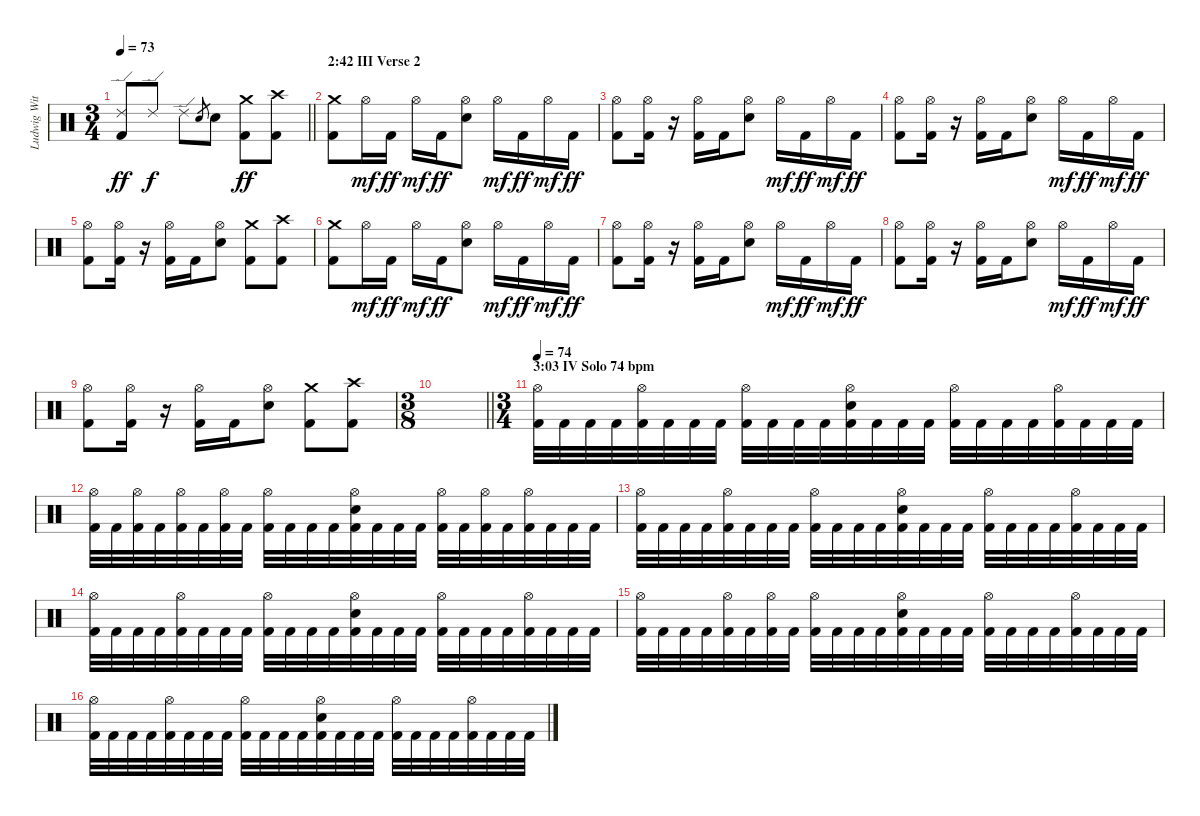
\track ("Ludwig Witt (Drums)" "Ludwig Wit") {instrument percussion}
\staff
\articulation defaults
\ts (3 4)
\tempo 73
\clef neutral
\barLineRight lightlight
\ks c
("Ride (edge) 2" "Kick (hit) 2").8{dy ff} "Ride (edge) 2".8{dy f} "Ride (edge) 2".8 "Electric Snare (hit)".8{gr} "Electric Snare (hit)".8 ("Crash medium (hit)" "Kick (hit) 2").8{dy ff} ("Crash high (hit)" "Kick (hit) 2").8 |
\section ("" "2:42 III Verse 2")
("Crash medium (hit)" "Kick (hit) 2").8 "Hi-Hat (open)".16{dy mf} "Kick (hit) 2".16{dy ff} "Hi-Hat (open)".16{dy mf} "Kick (hit) 2".16{dy ff} ("Hi-Hat (open)" "Electric Snare (hit)").8 "Hi-Hat (open)".16{dy mf} "Kick (hit) 2".16{dy ff} "Hi-Hat (open)".16{dy mf} "Kick (hit) 2".16{dy ff} |
("Hi-Hat (open)" "Kick (hit) 2").8 ("Hi-Hat (open)" "Kick (hit) 2").16 r.16 ("Hi-Hat (open)" "Kick (hit) 2").16 "Kick (hit) 2".16 ("Hi-Hat (open)" "Electric Snare (hit)").8 "Hi-Hat (open)".16{dy mf} "Kick (hit) 2".16{dy ff} "Hi-Hat (open)".16{dy mf} "Kick (hit) 2".16{dy ff} |
("Hi-Hat (open)" "Kick (hit) 2").8 ("Hi-Hat (open)" "Kick (hit) 2").16 r.16 ("Hi-Hat (open)" "Kick (hit) 2").16 "Kick (hit) 2".16 ("Hi-Hat (open)" "Electric Snare (hit)").8 "Hi-Hat (open)".16{dy mf} "Kick (hit) 2".16{dy ff} "Hi-Hat (open)".16{dy mf} "Kick (hit) 2".16{dy ff} |
("Hi-Hat (open)" "Kick (hit) 2").8 ("Hi-Hat (open)" "Kick (hit) 2").16 r.16 ("Hi-Hat (open)" "Kick (hit) 2").16 "Kick (hit) 2".16 ("Hi-Hat (open)" "Electric Snare (hit)").8 ("Crash medium (hit)" "Kick (hit) 2").8 ("Crash high (hit)" "Kick (hit) 2").8 |
("Crash medium (hit)" "Kick (hit) 2").8 "Hi-Hat (open)".16{dy mf} "Kick (hit) 2".16{dy ff} "Hi-Hat (open)".16{dy mf} "Kick (hit) 2".16{dy ff} ("Hi-Hat (open)" "Electric Snare (hit)").8 "Hi-Hat (open)".16{dy mf} "Kick (hit) 2".16{dy ff} "Hi-Hat (open)".16{dy mf} "Kick (hit) 2".16{dy ff} |
("Hi-Hat (open)" "Kick (hit) 2").8 ("Hi-Hat (open)" "Kick (hit) 2").16 r.16 ("Hi-Hat (open)" "Kick (hit) 2").16 "Kick (hit) 2".16 ("Hi-Hat (open)" "Electric Snare (hit)").8 "Hi-Hat (open)".16{dy mf} "Kick (hit) 2".16{dy ff} "Hi-Hat (open)".16{dy mf} "Kick (hit) 2".16{dy ff} |
("Hi-Hat (open)" "Kick (hit) 2").8 ("Hi-Hat (open)" "Kick (hit) 2").16 r.16 ("Hi-Hat (open)" "Kick (hit) 2").16 "Kick (hit) 2".16 ("Hi-Hat (open)" "Electric Snare (hit)").8 "Hi-Hat (open)".16{dy mf} "Kick (hit) 2".16{dy ff} "Hi-Hat (open)".16{dy mf} "Kick (hit) 2".16{dy ff} |
("Hi-Hat (open)" "Kick (hit) 2").8 ("Hi-Hat (open)" "Kick (hit) 2").16 r.16 ("Hi-Hat (open)" "Kick (hit) 2").16 "Kick (hit) 2".16 ("Hi-Hat (open)" "Electric Snare (hit)").8 ("Crash medium (hit)" "Kick (hit) 2").8 ("Crash high (hit)" "Kick (hit) 2").8 |
\ts (3 8)
\barLineRight lightlight
|
\ts (3 4)
\section ("" "3:03 IV Solo 74 bpm")
\tempo 74
("Hi-Hat (open)" "Kick (hit) 2").32 "Kick (hit) 2".32 "Kick (hit) 2".32 "Kick (hit) 2".32 ("Hi-Hat (open)" "Kick (hit) 2").32 "Kick (hit) 2".32 "Kick (hit) 2".32 "Kick (hit) 2".32 ("Hi-Hat (open)" "Kick (hit) 2").32 "Kick (hit) 2".32 "Kick (hit) 2".32 "Kick (hit) 2".32 ("Hi-Hat (open)" "Electric Snare (hit)" "Kick (hit) 2").32 "Kick (hit) 2".32 "Kick (hit) 2".32 "Kick (hit) 2".32 ("Hi-Hat (open)" "Kick (hit) 2").32 "Kick (hit) 2".32 "Kick (hit) 2".32 "Kick (hit) 2".32 ("Hi-Hat (open)" "Kick (hit) 2").32 "Kick (hit) 2".32 "Kick (hit) 2".32 "Kick (hit) 2".32 |
("Hi-Hat (open)" "Kick (hit) 2").32 "Kick (hit) 2".32 ("Hi-Hat (open)" "Kick (hit) 2").32 "Kick (hit) 2".32 ("Hi-Hat (open)" "Kick (hit) 2").32 "Kick (hit) 2".32 ("Hi-Hat (open)" "Kick (hit) 2").32 "Kick (hit) 2".32 ("Hi-Hat (open)" "Kick (hit) 2").32 "Kick (hit) 2".32 "Kick (hit) 2".32 "Kick (hit) 2".32 ("Hi-Hat (open)" "Electric Snare (hit)" "Kick (hit) 2").32 "Kick (hit) 2".32 "Kick (hit) 2".32 "Kick (hit) 2".32 ("Hi-Hat (open)" "Kick (hit) 2").32 "Kick (hit) 2".32 ("Hi-Hat (open)" "Kick (hit) 2").32 "Kick (hit) 2".32 ("Hi-Hat (open)" "Kick (hit) 2").32 "Kick (hit) 2".32 "Kick (hit) 2".32 "Kick (hit) 2".32 |
("Hi-Hat (open)" "Kick (hit) 2").32 "Kick (hit) 2".32 "Kick (hit) 2".32 "Kick (hit) 2".32 ("Hi-Hat (open)" "Kick (hit) 2").32 "Kick (hit) 2".32 "Kick (hit) 2".32 "Kick (hit) 2".32 ("Hi-Hat (open)" "Kick (hit) 2").32 "Kick (hit) 2".32 "Kick (hit) 2".32 "Kick (hit) 2".32 ("Hi-Hat (open)" "Electric Snare (hit)" "Kick (hit) 2").32 "Kick (hit) 2".32 "Kick (hit) 2".32 "Kick (hit) 2".32 ("Hi-Hat (open)" "Kick (hit) 2").32 "Kick (hit) 2".32 "Kick (hit) 2".32 "Kick (hit) 2".32 ("Hi-Hat (open)" "Kick (hit) 2").32 "Kick (hit) 2".32 "Kick (hit) 2".32 "Kick (hit) 2".32 |
("Hi-Hat (open)" "Kick (hit) 2").32 "Kick (hit) 2".32 "Kick (hit) 2".32 "Kick (hit) 2".32 ("Hi-Hat (open)" "Kick (hit) 2").32 "Kick (hit) 2".32 "Kick (hit) 2".32 "Kick (hit) 2".32 ("Hi-Hat (open)" "Kick (hit) 2").32 "Kick (hit) 2".32 "Kick (hit) 2".32 "Kick (hit) 2".32 ("Hi-Hat (open)" "Electric Snare (hit)" "Kick (hit) 2").32 "Kick (hit) 2".32 "Kick (hit) 2".32 "Kick (hit) 2".32 ("Hi-Hat (open)" "Kick (hit) 2").32 "Kick (hit) 2".32 "Kick (hit) 2".32 "Kick (hit) 2".32 ("Hi-Hat (open)" "Kick (hit) 2").32 "Kick (hit) 2".32 "Kick (hit) 2".32 "Kick (hit) 2".32 |
("Hi-Hat (open)" "Kick (hit) 2").32 "Kick (hit) 2".32 "Kick (hit) 2".32 "Kick (hit) 2".32 ("Hi-Hat (open)" "Kick (hit) 2").32 "Kick (hit) 2".32 ("Hi-Hat (open)" "Kick (hit) 2").32 "Kick (hit) 2".32 ("Hi-Hat (open)" "Kick (hit) 2").32 "Kick (hit) 2".32 "Kick (hit) 2".32 "Kick (hit) 2".32 ("Hi-Hat (open)" "Electric Snare (hit)" "Kick (hit) 2").32 "Kick (hit) 2".32 "Kick (hit) 2".32 "Kick (hit) 2".32 ("Hi-Hat (open)" "Kick (hit) 2").32 "Kick (hit) 2".32 "Kick (hit) 2".32 "Kick (hit) 2".32 ("Hi-Hat (open)" "Kick (hit) 2").32 "Kick (hit) 2".32 "Kick (hit) 2".32 "Kick (hit) 2".32 |
("Hi-Hat (open)" "Kick (hit) 2").32 "Kick (hit) 2".32 "Kick (hit) 2".32 "Kick (hit) 2".32 ("Hi-Hat (open)" "Kick (hit) 2").32 "Kick (hit) 2".32 "Kick (hit) 2".32 "Kick (hit) 2".32 ("Hi-Hat (open)" "Kick (hit) 2").32 "Kick (hit) 2".32 "Kick (hit) 2".32 "Kick (hit) 2".32 ("Hi-Hat (open)" "Electric Snare (hit)" "Kick (hit) 2").32 "Kick (hit) 2".32 "Kick (hit) 2".32 "Kick (hit) 2".32 ("Hi-Hat (open)" "Kick (hit) 2").32 "Kick (hit) 2".32 "Kick (hit) 2".32 "Kick (hit) 2".32 ("Hi-Hat (open)" "Kick (hit) 2").32 "Kick (hit) 2".32 "Kick (hit) 2".32 "Kick (hit) 2".32
